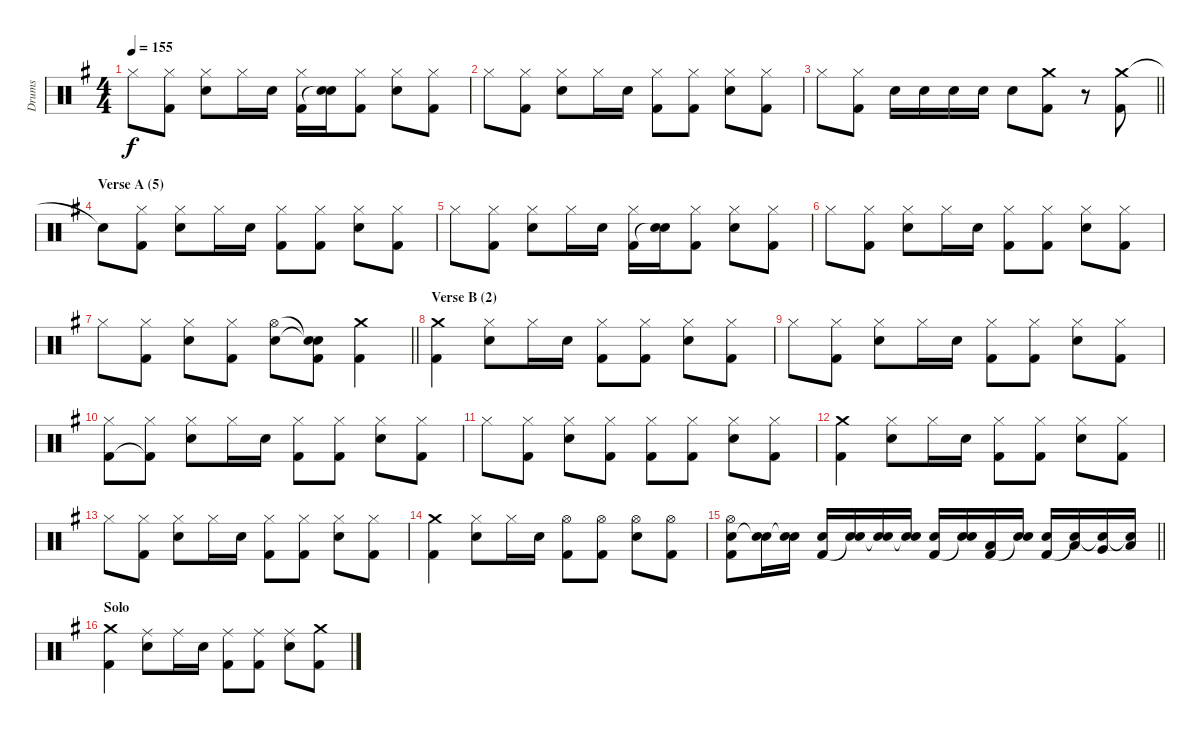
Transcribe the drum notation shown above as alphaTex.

\track ("Drums" "Drums") {instrument percussion}
\staff {score}
\articulation defaults
\ts (4 4)
\tempo 155
\clef neutral
\ks eminor "Hi-Hat (closed)".8{dy f}
("Hi-Hat (closed)" "Kick (hit) 2").8 ("Hi-Hat (closed)" "Electric Snare (hit)").8 "Hi-Hat (closed)".16 "Electric Snare (hit)".16 ("Hi-Hat (closed)" "Kick (hit) 2").16 ("Electric Snare (hit)" "Snare (hit)"{t}).16 ("Hi-Hat (closed)" "Kick (hit) 2").8 ("Hi-Hat (closed)" "Electric Snare (hit)").8 ("Hi-Hat (closed)" "Kick (hit) 2").8 |
"Hi-Hat (closed)".8 ("Hi-Hat (closed)" "Kick (hit) 2").8 ("Hi-Hat (closed)" "Electric Snare (hit)").8 "Hi-Hat (closed)".16 "Electric Snare (hit)".16 ("Hi-Hat (closed)" "Kick (hit) 2").8 ("Hi-Hat (closed)" "Kick (hit) 2").8 ("Hi-Hat (closed)" "Electric Snare (hit)").8 ("Hi-Hat (closed)" "Kick (hit) 2").8 |
\barLineRight lightlight "Hi-Hat (closed)".8
("Hi-Hat (closed)" "Kick (hit) 2").8 "Electric Snare (hit)".16 "Electric Snare (hit)".16 "Electric Snare (hit)".16 "Electric Snare (hit)".16 "Electric Snare (hit)".8 ("Crash medium (hit)" "Kick (hit) 2").8 r.8 ("Crash medium (hit)" "Kick (hit) 2").8 |
\section ("" "Verse A (5)")
"Snare (hit)"{t}.8 ("Hi-Hat (closed)" "Kick (hit) 2").8 ("Hi-Hat (closed)" "Electric Snare (hit)").8 "Hi-Hat (closed)".16 "Electric Snare (hit)".16 ("Hi-Hat (closed)" "Kick (hit) 2").8 ("Hi-Hat (closed)" "Kick (hit) 2").8 ("Hi-Hat (closed)" "Electric Snare (hit)").8 ("Hi-Hat (closed)" "Kick (hit) 2").8 |
"Hi-Hat (closed)".8 ("Hi-Hat (closed)" "Kick (hit) 2").8 ("Hi-Hat (closed)" "Electric Snare (hit)").8 "Hi-Hat (closed)".16 "Electric Snare (hit)".16 ("Hi-Hat (closed)" "Kick (hit) 2").16 ("Electric Snare (hit)" "Snare (hit)"{t}).16 ("Hi-Hat (closed)" "Kick (hit) 2").8 ("Hi-Hat (closed)" "Electric Snare (hit)").8 ("Hi-Hat (closed)" "Kick (hit) 2").8 |
"Hi-Hat (closed)".8 ("Hi-Hat (closed)" "Kick (hit) 2").8 ("Hi-Hat (closed)" "Electric Snare (hit)").8 "Hi-Hat (closed)".16 "Electric Snare (hit)".16 ("Hi-Hat (closed)" "Kick (hit) 2").8 ("Hi-Hat (closed)" "Kick (hit) 2").8 ("Hi-Hat (closed)" "Electric Snare (hit)").8 ("Hi-Hat (closed)" "Kick (hit) 2").8 |
\barLineRight lightlight "Hi-Hat (closed)".8
("Hi-Hat (closed)" "Kick (hit) 2").8 ("Hi-Hat (closed)" "Electric Snare (hit)").8 ("Hi-Hat (closed)" "Kick (hit) 2").8 ("Hi-Hat (open)" "Electric Snare (hit)").8 ("Snare (hit)"{t} "Snare (hit)"{t} "Kick (hit) 2").8 ("Crash medium (hit)" "Kick (hit) 2").4 |
\section ("" "Verse B (2)")
("Crash medium (hit)" "Kick (hit) 2").4 ("Hi-Hat (closed)" "Electric Snare (hit)").8 "Hi-Hat (closed)".16 "Electric Snare (hit)".16 ("Hi-Hat (closed)" "Kick (hit) 2").8 ("Hi-Hat (closed)" "Kick (hit) 2").8 ("Hi-Hat (closed)" "Electric Snare (hit)").8 ("Hi-Hat (closed)" "Kick (hit) 2").8 |
"Hi-Hat (closed)".8 ("Hi-Hat (closed)" "Kick (hit) 2").8 ("Hi-Hat (closed)" "Electric Snare (hit)").8 "Hi-Hat (closed)".16 "Electric Snare (hit)".16 ("Hi-Hat (closed)" "Kick (hit) 2").8 ("Hi-Hat (closed)" "Kick (hit) 2").8 ("Hi-Hat (closed)" "Electric Snare (hit)").8 ("Hi-Hat (closed)" "Kick (hit) 2").8 |
("Hi-Hat (closed)" "Kick (hit) 2").8 ("Hi-Hat (closed)" "Kick (hit) 2"{t}).8 ("Hi-Hat (closed)" "Electric Snare (hit)").8 "Hi-Hat (closed)".16 "Electric Snare (hit)".16 ("Hi-Hat (closed)" "Kick (hit) 2").8 ("Hi-Hat (closed)" "Kick (hit) 2").8 ("Hi-Hat (closed)" "Electric Snare (hit)").8 ("Hi-Hat (closed)" "Kick (hit) 2").8 |
"Hi-Hat (closed)".8 ("Hi-Hat (closed)" "Kick (hit) 2").8 ("Hi-Hat (closed)" "Electric Snare (hit)").8 ("Hi-Hat (closed)" "Kick (hit) 2").8 ("Hi-Hat (closed)" "Kick (hit) 2").8 ("Hi-Hat (closed)" "Kick (hit) 2").8 ("Hi-Hat (closed)" "Electric Snare (hit)").8 ("Hi-Hat (closed)" "Kick (hit) 2").8 |
("Crash medium (hit)" "Kick (hit) 2").4 ("Hi-Hat (closed)" "Electric Snare (hit)").8 "Hi-Hat (closed)".16 "Electric Snare (hit)".16 ("Hi-Hat (closed)" "Kick (hit) 2").8 ("Hi-Hat (closed)" "Kick (hit) 2").8 ("Hi-Hat (closed)" "Electric Snare (hit)").8 ("Hi-Hat (closed)" "Kick (hit) 2").8 |
"Hi-Hat (closed)".8 ("Hi-Hat (closed)" "Kick (hit) 2").8 ("Hi-Hat (closed)" "Electric Snare (hit)").8 "Hi-Hat (closed)".16 "Electric Snare (hit)".16 ("Hi-Hat (closed)" "Kick (hit) 2").8 ("Hi-Hat (closed)" "Kick (hit) 2").8 ("Hi-Hat (closed)" "Electric Snare (hit)").8 ("Hi-Hat (closed)" "Kick (hit) 2").8 |
("Crash medium (hit)" "Kick (hit) 2").4 ("Hi-Hat (closed)" "Electric Snare (hit)").8 "Hi-Hat (closed)".16 "Electric Snare (hit)".16 ("Hi-Hat (open)" "Kick (hit) 2").8 ("Hi-Hat (open)" "Kick (hit) 2").8 ("Hi-Hat (open)" "Electric Snare (hit)").8 ("Hi-Hat (open)" "Kick (hit) 2").8 |
\barLineRight lightlight
("Hi-Hat (open)" "Electric Snare (hit)" "Kick (hit) 2").8 ("Electric Snare (hit)" "Snare (hit)"{t}).16 ("Electric Snare (hit)" "Snare (hit)"{t}).16 ("Electric Snare (hit)" "Kick (hit) 2").16 ("Electric Snare (hit)" "Snare (hit)"{t}).16 ("Electric Snare (hit)" "Snare (hit)"{t}).16 ("Electric Snare (hit)" "Snare (hit)"{t}).16 ("Electric Snare (hit)" "Kick (hit) 2").16 ("Electric Snare (hit)" "Snare (hit)"{t}).16 ("Low Tom (hit)" "Kick (hit) 2").16 ("Electric Snare (hit)" "Snare (hit)"{t}).16 ("Electric Snare (hit)" "Kick (hit) 2").16 ("Low Tom (hit)" "Snare (hit)"{t}).16 ("Very Low Tom (hit)" "Snare (hit)"{t}).16 ("Low Floor Tom (hit)" "Snare (hit)"{t}).16 |
\section ("" "Solo")
("Crash medium (hit)" "Kick (hit) 2").4 ("Ride (middle)" "Electric Snare (hit)").8 "Ride (middle)".16 "Electric Snare (hit)".16 ("Ride (middle)" "Kick (hit) 2").8 ("Ride (middle)" "Kick (hit) 2").8 ("Ride (middle)" "Electric Snare (hit)").8 ("Crash medium (hit)" "Kick (hit) 2").8
